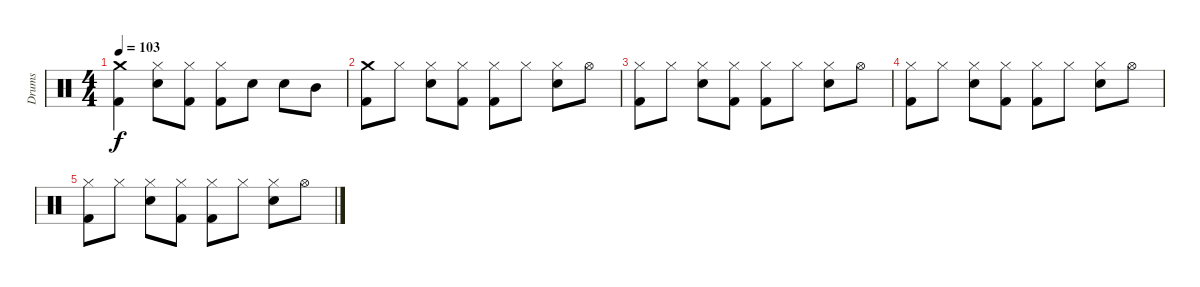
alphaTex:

\track ("Drums" "Drums") {instrument percussion}
\staff {score}
\articulation defaults
\ts (4 4)
\tempo 103
\clef neutral
\ks c
("Crash medium (hit)" "Kick (hit) 2").4{dy f} ("Hi-Hat (closed)" "Electric Snare (hit)").8 ("Hi-Hat (closed)" "Kick (hit) 2").8 ("Hi-Hat (closed)" "Kick (hit) 2").8 "Electric Snare (hit)".8 "Electric Snare (hit)".8 "Mid Tom (hit)".8 |
("Crash medium (hit)" "Kick (hit) 2").8 "Hi-Hat (closed)".8 ("Hi-Hat (closed)" "Electric Snare (hit)").8 ("Hi-Hat (closed)" "Kick (hit) 2").8 ("Hi-Hat (closed)" "Kick (hit) 2").8 "Hi-Hat (closed)".8 ("Hi-Hat (closed)" "Electric Snare (hit)").8 "Hi-Hat (open)".8 |
("Hi-Hat (closed)" "Kick (hit) 2").8 "Hi-Hat (closed)".8 ("Hi-Hat (closed)" "Electric Snare (hit)").8 ("Hi-Hat (closed)" "Kick (hit) 2").8 ("Hi-Hat (closed)" "Kick (hit) 2").8 "Hi-Hat (closed)".8 ("Hi-Hat (closed)" "Electric Snare (hit)").8 "Hi-Hat (open)".8 |
("Hi-Hat (closed)" "Kick (hit) 2").8{volume 14} "Hi-Hat (closed)".8 ("Hi-Hat (closed)" "Electric Snare (hit)").8{volume 13} ("Hi-Hat (closed)" "Kick (hit) 2").8 ("Hi-Hat (closed)" "Kick (hit) 2").8{volume 11} "Hi-Hat (closed)".8 ("Hi-Hat (closed)" "Electric Snare (hit)").8{volume 10} "Hi-Hat (open)".8 |
("Hi-Hat (closed)" "Kick (hit) 2").8{volume 8} "Hi-Hat (closed)".8{volume 7} ("Hi-Hat (closed)" "Electric Snare (hit)").8{volume 6} ("Hi-Hat (closed)" "Kick (hit) 2").8{volume 6} ("Hi-Hat (closed)" "Kick (hit) 2").8{volume 5} "Hi-Hat (closed)".8{volume 3} ("Hi-Hat (closed)" "Electric Snare (hit)").8{volume 2} "Hi-Hat (open)".8{volume 1}
